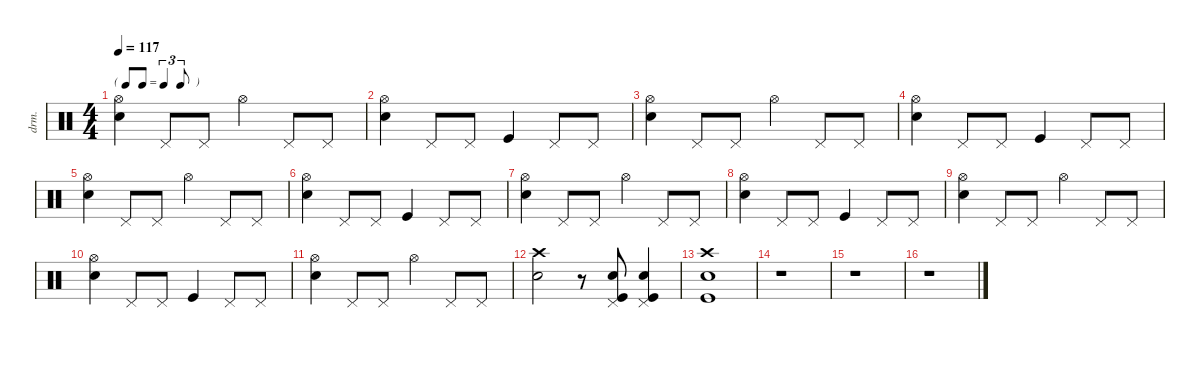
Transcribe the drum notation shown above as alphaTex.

\defaultSystemsLayout 4
\hideDynamics
\bracketExtendMode nobrackets
\otherSystemsTrackNameOrientation horizontal
\track ("Percussions" "drm.") {instrument percussion}
\staff {score}
\articulation defaults
\ts (4 4)
\tf triplet8th
\tempo 117
\clef neutral
\ks c
("Hi-Hat (open)" "Snare (hit) 2").4{dy f} "Pedal Hi-Hat (hit)".8 "Pedal Hi-Hat (hit)".8 "Hi-Hat (open)".4 "Pedal Hi-Hat (hit)".8 "Pedal Hi-Hat (hit)".8 |
("Hi-Hat (open)" "Snare (hit) 2").4 "Pedal Hi-Hat (hit)".8 "Pedal Hi-Hat (hit)".8 "Kick (hit)".4 "Pedal Hi-Hat (hit)".8 "Pedal Hi-Hat (hit)".8 |
("Hi-Hat (open)" "Snare (hit) 2").4 "Pedal Hi-Hat (hit)".8 "Pedal Hi-Hat (hit)".8 "Hi-Hat (open)".4 "Pedal Hi-Hat (hit)".8 "Pedal Hi-Hat (hit)".8 |
("Hi-Hat (open)" "Snare (hit) 2").4 "Pedal Hi-Hat (hit)".8 "Pedal Hi-Hat (hit)".8 "Kick (hit)".4 "Pedal Hi-Hat (hit)".8 "Pedal Hi-Hat (hit)".8 |
("Hi-Hat (open)" "Snare (hit) 2").4 "Pedal Hi-Hat (hit)".8 "Pedal Hi-Hat (hit)".8 "Hi-Hat (open)".4 "Pedal Hi-Hat (hit)".8 "Pedal Hi-Hat (hit)".8 |
("Hi-Hat (open)" "Snare (hit) 2").4 "Pedal Hi-Hat (hit)".8 "Pedal Hi-Hat (hit)".8 "Kick (hit)".4 "Pedal Hi-Hat (hit)".8 "Pedal Hi-Hat (hit)".8 |
("Hi-Hat (open)" "Snare (hit) 2").4 "Pedal Hi-Hat (hit)".8 "Pedal Hi-Hat (hit)".8 "Hi-Hat (open)".4 "Pedal Hi-Hat (hit)".8 "Pedal Hi-Hat (hit)".8 |
("Hi-Hat (open)" "Snare (hit) 2").4 "Pedal Hi-Hat (hit)".8 "Pedal Hi-Hat (hit)".8 "Kick (hit)".4 "Pedal Hi-Hat (hit)".8 "Pedal Hi-Hat (hit)".8 |
("Hi-Hat (open)" "Snare (hit) 2").4 "Pedal Hi-Hat (hit)".8 "Pedal Hi-Hat (hit)".8 "Hi-Hat (open)".4 "Pedal Hi-Hat (hit)".8 "Pedal Hi-Hat (hit)".8 |
("Hi-Hat (open)" "Snare (hit) 2").4 "Pedal Hi-Hat (hit)".8 "Pedal Hi-Hat (hit)".8 "Kick (hit)".4 "Pedal Hi-Hat (hit)".8 "Pedal Hi-Hat (hit)".8 |
("Hi-Hat (open)" "Snare (hit) 2").4 "Pedal Hi-Hat (hit)".8 "Pedal Hi-Hat (hit)".8 "Hi-Hat (open)".4 "Pedal Hi-Hat (hit)".8 "Pedal Hi-Hat (hit)".8 |
("Crash high (hit)" "Snare (hit) 2").2 r.8 ("Pedal Hi-Hat (hit)" "Snare (hit) 2" "Kick (hit)").8 ("Pedal Hi-Hat (hit)" "Snare (hit) 2" "Kick (hit)").4 |
("Crash high (hit)" "Snare (hit) 2" "Kick (hit)").1 |
r.1 |
r.1 |
r.1
